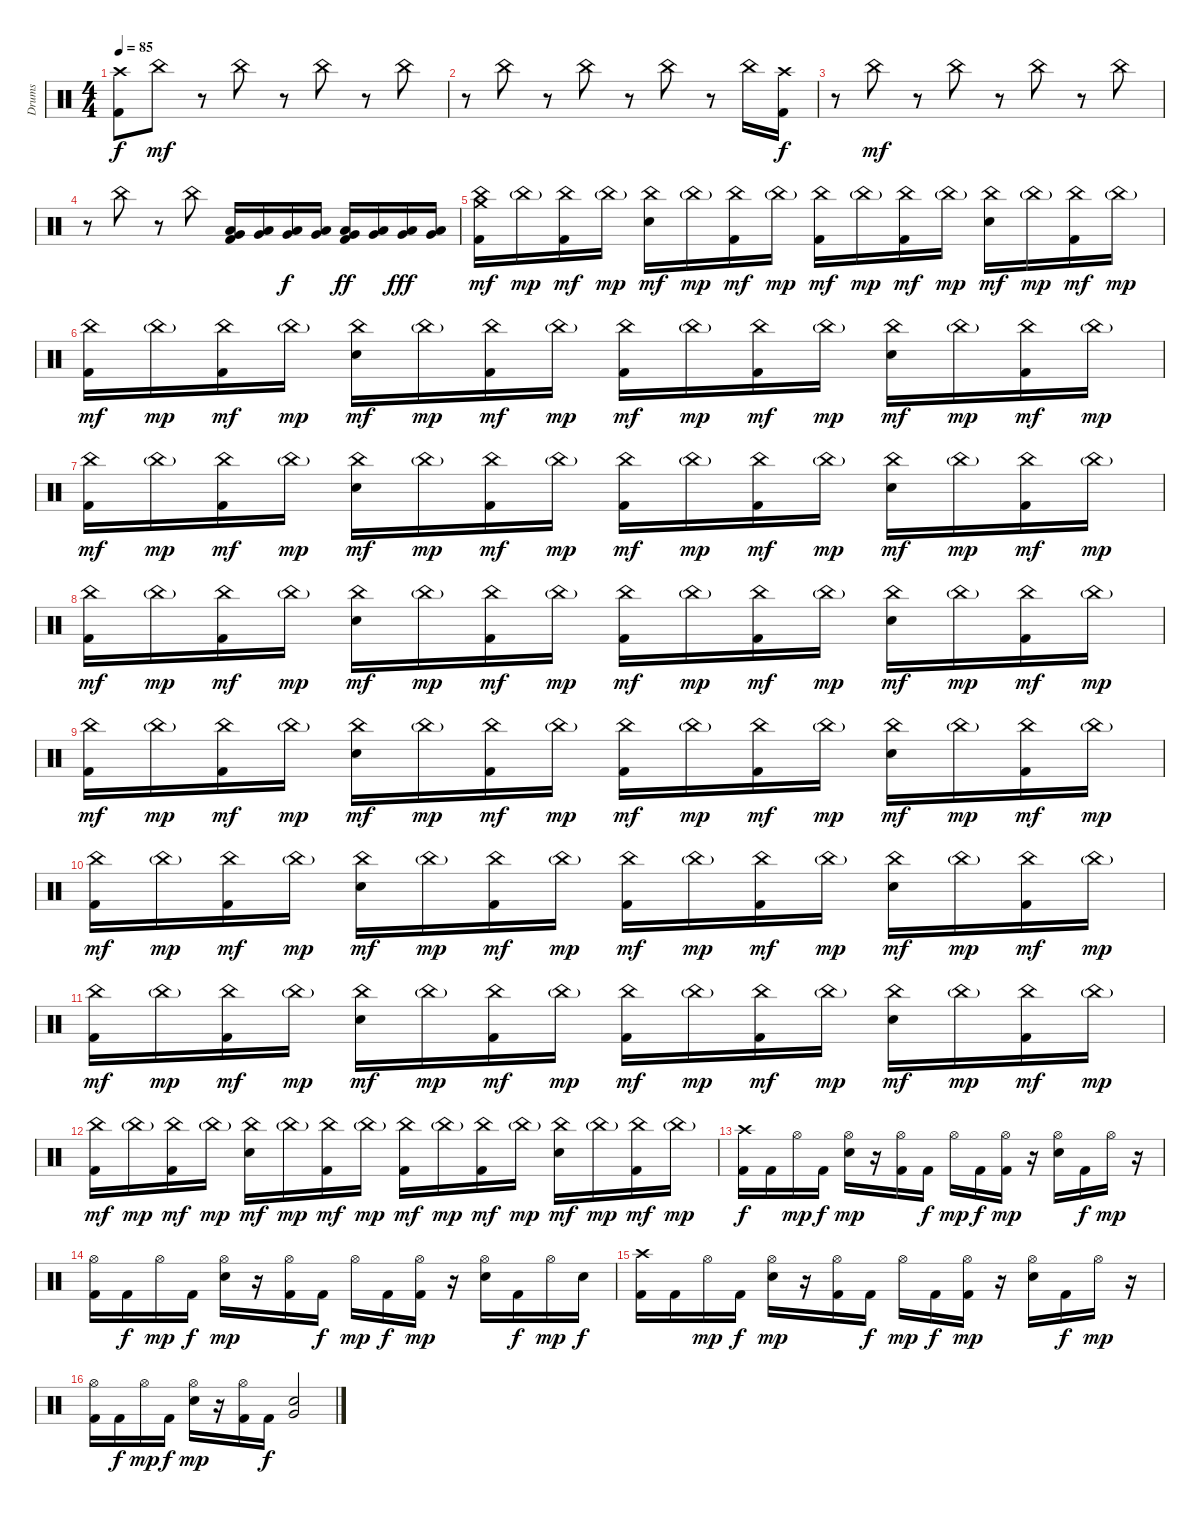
\track ("Drums" "Drums") {instrument percussion}
\staff {score}
\articulation defaults
\ts (4 4)
\tempo 85
\clef neutral
\ks c
("Crash high (hit)" "Kick (hit) 2").8{dy f} "China (hit)".8{dy mf} r.8 "China (hit)".8 r.8 "China (hit)".8 r.8 "China (hit)".8 |
r.8 "China (hit)".8 r.8 "China (hit)".8 r.8 "China (hit)".8 r.8 "China (hit)".16 ("Crash high (hit)" "Kick (hit) 2").16{dy f} |
r.8 "China (hit)".8{dy mf} r.8 "China (hit)".8 r.8 "China (hit)".8 r.8 "China (hit)".8 |
r.8 "China (hit)".8 r.8 "China (hit)".8 ("Low Tom (hit)" "Very Low Tom (hit)" "Kick (hit) 2").16 ("Low Tom (hit)" "Very Low Tom (hit)").16 ("Low Tom (hit)" "Very Low Tom (hit)").16{dy f} ("Low Tom (hit)" "Very Low Tom (hit)").16 ("Low Tom (hit)" "Very Low Tom (hit)" "Kick (hit) 2").16{dy ff} ("Low Tom (hit)" "Very Low Tom (hit)").16 ("Low Tom (hit)" "Very Low Tom (hit)").16{dy fff} ("Low Tom (hit)" "Very Low Tom (hit)").16 |
("Crash medium (hit)" "China (hit)" "Kick (hit) 2").16{dy mf} "China (hit)"{g}.16{dy mp} ("China (hit)" "Kick (hit) 2").16{dy mf} "China (hit)"{g}.16{dy mp} ("China (hit)" "Electric Snare (hit)").16{dy mf} "China (hit)"{g}.16{dy mp} ("China (hit)" "Kick (hit) 2").16{dy mf} "China (hit)"{g}.16{dy mp} ("China (hit)" "Kick (hit) 2").16{dy mf} "China (hit)"{g}.16{dy mp} ("China (hit)" "Kick (hit) 2").16{dy mf} "China (hit)"{g}.16{dy mp} ("China (hit)" "Electric Snare (hit)").16{dy mf} "China (hit)"{g}.16{dy mp} ("China (hit)" "Kick (hit) 2").16{dy mf} "China (hit)"{g}.16{dy mp} |
("China (hit)" "Kick (hit) 2").16{dy mf} "China (hit)"{g}.16{dy mp} ("China (hit)" "Kick (hit) 2").16{dy mf} "China (hit)"{g}.16{dy mp} ("China (hit)" "Electric Snare (hit)").16{dy mf} "China (hit)"{g}.16{dy mp} ("China (hit)" "Kick (hit) 2").16{dy mf} "China (hit)"{g}.16{dy mp} ("China (hit)" "Kick (hit) 2").16{dy mf} "China (hit)"{g}.16{dy mp} ("China (hit)" "Kick (hit) 2").16{dy mf} "China (hit)"{g}.16{dy mp} ("China (hit)" "Electric Snare (hit)").16{dy mf} "China (hit)"{g}.16{dy mp} ("China (hit)" "Kick (hit) 2").16{dy mf} "China (hit)"{g}.16{dy mp} |
("China (hit)" "Kick (hit) 2").16{dy mf} "China (hit)"{g}.16{dy mp} ("China (hit)" "Kick (hit) 2").16{dy mf} "China (hit)"{g}.16{dy mp} ("China (hit)" "Electric Snare (hit)").16{dy mf} "China (hit)"{g}.16{dy mp} ("China (hit)" "Kick (hit) 2").16{dy mf} "China (hit)"{g}.16{dy mp} ("China (hit)" "Kick (hit) 2").16{dy mf} "China (hit)"{g}.16{dy mp} ("China (hit)" "Kick (hit) 2").16{dy mf} "China (hit)"{g}.16{dy mp} ("China (hit)" "Electric Snare (hit)").16{dy mf} "China (hit)"{g}.16{dy mp} ("China (hit)" "Kick (hit) 2").16{dy mf} "China (hit)"{g}.16{dy mp} |
("China (hit)" "Kick (hit) 2").16{dy mf} "China (hit)"{g}.16{dy mp} ("China (hit)" "Kick (hit) 2").16{dy mf} "China (hit)"{g}.16{dy mp} ("China (hit)" "Electric Snare (hit)").16{dy mf} "China (hit)"{g}.16{dy mp} ("China (hit)" "Kick (hit) 2").16{dy mf} "China (hit)"{g}.16{dy mp} ("China (hit)" "Kick (hit) 2").16{dy mf} "China (hit)"{g}.16{dy mp} ("China (hit)" "Kick (hit) 2").16{dy mf} "China (hit)"{g}.16{dy mp} ("China (hit)" "Electric Snare (hit)").16{dy mf} "China (hit)"{g}.16{dy mp} ("China (hit)" "Kick (hit) 2").16{dy mf} "China (hit)"{g}.16{dy mp} |
("China (hit)" "Kick (hit) 2").16{dy mf} "China (hit)"{g}.16{dy mp} ("China (hit)" "Kick (hit) 2").16{dy mf} "China (hit)"{g}.16{dy mp} ("China (hit)" "Electric Snare (hit)").16{dy mf} "China (hit)"{g}.16{dy mp} ("China (hit)" "Kick (hit) 2").16{dy mf} "China (hit)"{g}.16{dy mp} ("China (hit)" "Kick (hit) 2").16{dy mf} "China (hit)"{g}.16{dy mp} ("China (hit)" "Kick (hit) 2").16{dy mf} "China (hit)"{g}.16{dy mp} ("China (hit)" "Electric Snare (hit)").16{dy mf} "China (hit)"{g}.16{dy mp} ("China (hit)" "Kick (hit) 2").16{dy mf} "China (hit)"{g}.16{dy mp} |
("China (hit)" "Kick (hit) 2").16{dy mf} "China (hit)"{g}.16{dy mp} ("China (hit)" "Kick (hit) 2").16{dy mf} "China (hit)"{g}.16{dy mp} ("China (hit)" "Electric Snare (hit)").16{dy mf} "China (hit)"{g}.16{dy mp} ("China (hit)" "Kick (hit) 2").16{dy mf} "China (hit)"{g}.16{dy mp} ("China (hit)" "Kick (hit) 2").16{dy mf} "China (hit)"{g}.16{dy mp} ("China (hit)" "Kick (hit) 2").16{dy mf} "China (hit)"{g}.16{dy mp} ("China (hit)" "Electric Snare (hit)").16{dy mf} "China (hit)"{g}.16{dy mp} ("China (hit)" "Kick (hit) 2").16{dy mf} "China (hit)"{g}.16{dy mp} |
("China (hit)" "Kick (hit) 2").16{dy mf} "China (hit)"{g}.16{dy mp} ("China (hit)" "Kick (hit) 2").16{dy mf} "China (hit)"{g}.16{dy mp} ("China (hit)" "Electric Snare (hit)").16{dy mf} "China (hit)"{g}.16{dy mp} ("China (hit)" "Kick (hit) 2").16{dy mf} "China (hit)"{g}.16{dy mp} ("China (hit)" "Kick (hit) 2").16{dy mf} "China (hit)"{g}.16{dy mp} ("China (hit)" "Kick (hit) 2").16{dy mf} "China (hit)"{g}.16{dy mp} ("China (hit)" "Electric Snare (hit)").16{dy mf} "China (hit)"{g}.16{dy mp} ("China (hit)" "Kick (hit) 2").16{dy mf} "China (hit)"{g}.16{dy mp} |
("China (hit)" "Kick (hit) 2").16{dy mf} "China (hit)"{g}.16{dy mp} ("China (hit)" "Kick (hit) 2").16{dy mf} "China (hit)"{g}.16{dy mp} ("China (hit)" "Electric Snare (hit)").16{dy mf} "China (hit)"{g}.16{dy mp} ("China (hit)" "Kick (hit) 2").16{dy mf} "China (hit)"{g}.16{dy mp} ("China (hit)" "Kick (hit) 2").16{dy mf} "China (hit)"{g}.16{dy mp} ("China (hit)" "Kick (hit) 2").16{dy mf} "China (hit)"{g}.16{dy mp} ("China (hit)" "Electric Snare (hit)").16{dy mf} "China (hit)"{g}.16{dy mp} ("China (hit)" "Kick (hit) 2").16{dy mf} "China (hit)"{g}.16{dy mp} |
("Crash high (hit)" "Kick (hit) 2").16{dy f} "Kick (hit) 2".16 "Hi-Hat (open)".16{dy mp} "Kick (hit) 2".16{dy f} ("Hi-Hat (open)" "Electric Snare (hit)").16{dy mp} r.16 ("Hi-Hat (open)" "Kick (hit) 2").16 "Kick (hit) 2".16{dy f} "Hi-Hat (open)".16{dy mp} "Kick (hit) 2".16{dy f} ("Hi-Hat (open)" "Kick (hit) 2").16{dy mp} r.16 ("Hi-Hat (open)" "Electric Snare (hit)").16 "Kick (hit) 2".16{dy f} "Hi-Hat (open)".16{dy mp} r.16 |
("Hi-Hat (open)" "Kick (hit) 2").16 "Kick (hit) 2".16{dy f} "Hi-Hat (open)".16{dy mp} "Kick (hit) 2".16{dy f} ("Hi-Hat (open)" "Electric Snare (hit)").16{dy mp} r.16 ("Hi-Hat (open)" "Kick (hit) 2").16 "Kick (hit) 2".16{dy f} "Hi-Hat (open)".16{dy mp} "Kick (hit) 2".16{dy f} ("Hi-Hat (open)" "Kick (hit) 2").16{dy mp} r.16 ("Hi-Hat (open)" "Electric Snare (hit)").16 "Kick (hit) 2".16{dy f} "Hi-Hat (open)".16{dy mp} "Electric Snare (hit)".16{dy f} |
("Crash high (hit)" "Kick (hit) 2").16 "Kick (hit) 2".16 "Hi-Hat (open)".16{dy mp} "Kick (hit) 2".16{dy f} ("Hi-Hat (open)" "Electric Snare (hit)").16{dy mp} r.16 ("Hi-Hat (open)" "Kick (hit) 2").16 "Kick (hit) 2".16{dy f} "Hi-Hat (open)".16{dy mp} "Kick (hit) 2".16{dy f} ("Hi-Hat (open)" "Kick (hit) 2").16{dy mp} r.16 ("Hi-Hat (open)" "Electric Snare (hit)").16 "Kick (hit) 2".16{dy f} "Hi-Hat (open)".16{dy mp} r.16 |
("Hi-Hat (open)" "Kick (hit) 2").16 "Kick (hit) 2".16{dy f} "Hi-Hat (open)".16{dy mp} "Kick (hit) 2".16{dy f} ("Hi-Hat (open)" "Electric Snare (hit)").16{dy mp} r.16 ("Hi-Hat (open)" "Kick (hit) 2").16 "Kick (hit) 2".16{dy f} ("Electric Snare (hit)" "Very Low Tom (hit)").2
